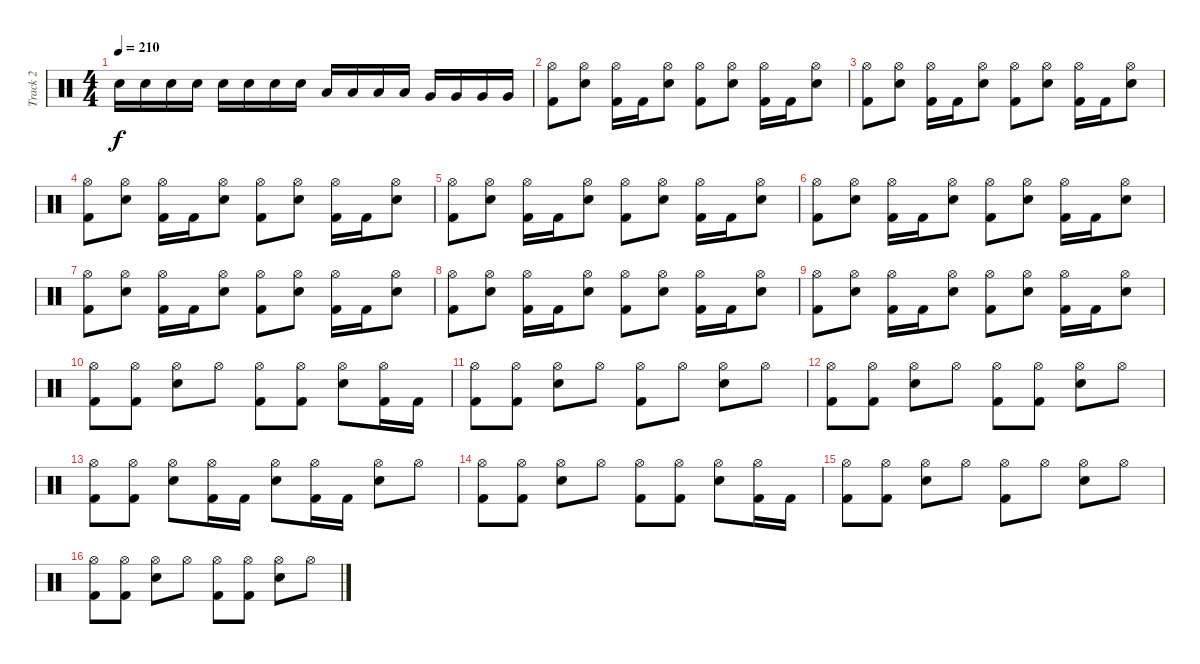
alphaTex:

\track ("Track 2" "Track 2") {instrument percussion}
\staff {score}
\articulation defaults
\ts (4 4)
\tempo 210
\clef neutral
\ks c "Snare (hit) 2".16{dy f} "Snare (hit) 2".16 "Snare (hit) 2".16 "Snare (hit) 2".16 "Snare (hit) 2".16 "Snare (hit) 2".16 "Snare (hit) 2".16 "Snare (hit) 2".16 "Low Tom (hit)".16 "Low Tom (hit)".16 "Low Tom (hit)".16 "Low Tom (hit)".16 "Very Low Tom (hit)".16 "Very Low Tom (hit)".16 "Very Low Tom (hit)".16 "Very Low Tom (hit)".16
|
("Hi-Hat (open)" "Kick (hit) 2").8 ("Hi-Hat (open)" "Snare (hit) 2").8 ("Hi-Hat (open)" "Kick (hit) 2").16 "Kick (hit) 2".16 ("Hi-Hat (open)" "Snare (hit) 2").8 ("Hi-Hat (open)" "Kick (hit) 2").8 ("Hi-Hat (open)" "Snare (hit) 2").8 ("Hi-Hat (open)" "Kick (hit) 2").16 "Kick (hit) 2".16 ("Hi-Hat (open)" "Snare (hit) 2").8 |
("Hi-Hat (open)" "Kick (hit) 2").8 ("Hi-Hat (open)" "Snare (hit) 2").8 ("Hi-Hat (open)" "Kick (hit) 2").16 "Kick (hit) 2".16 ("Hi-Hat (open)" "Snare (hit) 2").8 ("Hi-Hat (open)" "Kick (hit) 2").8 ("Hi-Hat (open)" "Snare (hit) 2").8 ("Hi-Hat (open)" "Kick (hit) 2").16 "Kick (hit) 2".16 ("Hi-Hat (open)" "Snare (hit) 2").8 |
("Hi-Hat (open)" "Kick (hit) 2").8 ("Hi-Hat (open)" "Snare (hit) 2").8 ("Hi-Hat (open)" "Kick (hit) 2").16 "Kick (hit) 2".16 ("Hi-Hat (open)" "Snare (hit) 2").8 ("Hi-Hat (open)" "Kick (hit) 2").8 ("Hi-Hat (open)" "Snare (hit) 2").8 ("Hi-Hat (open)" "Kick (hit) 2").16 "Kick (hit) 2".16 ("Hi-Hat (open)" "Snare (hit) 2").8 |
("Hi-Hat (open)" "Kick (hit) 2").8 ("Hi-Hat (open)" "Snare (hit) 2").8 ("Hi-Hat (open)" "Kick (hit) 2").16 "Kick (hit) 2".16 ("Hi-Hat (open)" "Snare (hit) 2").8 ("Hi-Hat (open)" "Kick (hit) 2").8 ("Hi-Hat (open)" "Snare (hit) 2").8 ("Hi-Hat (open)" "Kick (hit) 2").16 "Kick (hit) 2".16 ("Hi-Hat (open)" "Snare (hit) 2").8 |
("Hi-Hat (open)" "Kick (hit) 2").8 ("Hi-Hat (open)" "Snare (hit) 2").8 ("Hi-Hat (open)" "Kick (hit) 2").16 "Kick (hit) 2".16 ("Hi-Hat (open)" "Snare (hit) 2").8 ("Hi-Hat (open)" "Kick (hit) 2").8 ("Hi-Hat (open)" "Snare (hit) 2").8 ("Hi-Hat (open)" "Kick (hit) 2").16 "Kick (hit) 2".16 ("Hi-Hat (open)" "Snare (hit) 2").8 |
("Hi-Hat (open)" "Kick (hit) 2").8 ("Hi-Hat (open)" "Snare (hit) 2").8 ("Hi-Hat (open)" "Kick (hit) 2").16 "Kick (hit) 2".16 ("Hi-Hat (open)" "Snare (hit) 2").8 ("Hi-Hat (open)" "Kick (hit) 2").8 ("Hi-Hat (open)" "Snare (hit) 2").8 ("Hi-Hat (open)" "Kick (hit) 2").16 "Kick (hit) 2".16 ("Hi-Hat (open)" "Snare (hit) 2").8 |
("Hi-Hat (open)" "Kick (hit) 2").8 ("Hi-Hat (open)" "Snare (hit) 2").8 ("Hi-Hat (open)" "Kick (hit) 2").16 "Kick (hit) 2".16 ("Hi-Hat (open)" "Snare (hit) 2").8 ("Hi-Hat (open)" "Kick (hit) 2").8 ("Hi-Hat (open)" "Snare (hit) 2").8 ("Hi-Hat (open)" "Kick (hit) 2").16 "Kick (hit) 2".16 ("Hi-Hat (open)" "Snare (hit) 2").8 |
("Hi-Hat (open)" "Kick (hit) 2").8 ("Hi-Hat (open)" "Snare (hit) 2").8 ("Hi-Hat (open)" "Kick (hit) 2").16 "Kick (hit) 2".16 ("Hi-Hat (open)" "Snare (hit) 2").8 ("Hi-Hat (open)" "Kick (hit) 2").8 ("Hi-Hat (open)" "Snare (hit) 2").8 ("Hi-Hat (open)" "Kick (hit) 2").16 "Kick (hit) 2".16 ("Hi-Hat (open)" "Snare (hit) 2").8 |
("Hi-Hat (open)" "Kick (hit) 2").8 ("Hi-Hat (open)" "Kick (hit) 2").8 ("Hi-Hat (open)" "Snare (hit) 2").8 "Hi-Hat (open)".8 ("Hi-Hat (open)" "Kick (hit) 2").8 ("Hi-Hat (open)" "Kick (hit) 2").8 ("Hi-Hat (open)" "Snare (hit) 2").8 ("Hi-Hat (open)" "Kick (hit) 2").16 "Kick (hit) 2".16 |
("Hi-Hat (open)" "Kick (hit) 2").8 ("Hi-Hat (open)" "Kick (hit) 2").8 ("Hi-Hat (open)" "Snare (hit) 2").8 "Hi-Hat (open)".8 ("Hi-Hat (open)" "Kick (hit) 2").8 "Hi-Hat (open)".8 ("Hi-Hat (open)" "Snare (hit) 2").8 "Hi-Hat (open)".8 |
("Hi-Hat (open)" "Kick (hit) 2").8 ("Hi-Hat (open)" "Kick (hit) 2").8 ("Hi-Hat (open)" "Snare (hit) 2").8 "Hi-Hat (open)".8 ("Hi-Hat (open)" "Kick (hit) 2").8 ("Hi-Hat (open)" "Kick (hit) 2").8 ("Hi-Hat (open)" "Snare (hit) 2").8 "Hi-Hat (open)".8 |
("Hi-Hat (open)" "Kick (hit) 2").8 ("Hi-Hat (open)" "Kick (hit) 2").8 ("Hi-Hat (open)" "Snare (hit) 2").8 ("Hi-Hat (open)" "Kick (hit) 2").16 "Kick (hit) 2".16 ("Hi-Hat (open)" "Snare (hit) 2").8 ("Hi-Hat (open)" "Kick (hit) 2").16 "Kick (hit) 2".16 ("Hi-Hat (open)" "Snare (hit) 2").8 "Hi-Hat (open)".8 |
("Hi-Hat (open)" "Kick (hit) 2").8 ("Hi-Hat (open)" "Kick (hit) 2").8 ("Hi-Hat (open)" "Snare (hit) 2").8 "Hi-Hat (open)".8 ("Hi-Hat (open)" "Kick (hit) 2").8 ("Hi-Hat (open)" "Kick (hit) 2").8 ("Hi-Hat (open)" "Snare (hit) 2").8 ("Hi-Hat (open)" "Kick (hit) 2").16 "Kick (hit) 2".16 |
("Hi-Hat (open)" "Kick (hit) 2").8 ("Hi-Hat (open)" "Kick (hit) 2").8 ("Hi-Hat (open)" "Snare (hit) 2").8 "Hi-Hat (open)".8 ("Hi-Hat (open)" "Kick (hit) 2").8 "Hi-Hat (open)".8 ("Hi-Hat (open)" "Snare (hit) 2").8 "Hi-Hat (open)".8 |
("Hi-Hat (open)" "Kick (hit) 2").8 ("Hi-Hat (open)" "Kick (hit) 2").8 ("Hi-Hat (open)" "Snare (hit) 2").8 "Hi-Hat (open)".8 ("Hi-Hat (open)" "Kick (hit) 2").8 ("Hi-Hat (open)" "Kick (hit) 2").8 ("Hi-Hat (open)" "Snare (hit) 2").8 "Hi-Hat (open)".8
